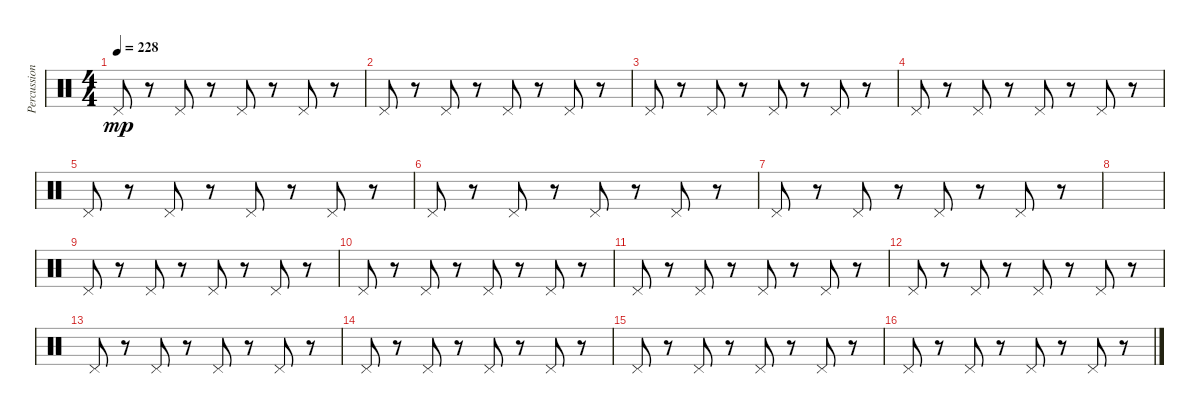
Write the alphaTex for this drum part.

\track ("Percussions" "Percussion") {instrument percussion}
\staff {score}
\articulation defaults
\ts (4 4)
\tempo 228
\clef neutral
\ks c "Pedal Hi-Hat (hit)".8{dy mp}
r.8 "Pedal Hi-Hat (hit)".8 r.8 "Pedal Hi-Hat (hit)".8 r.8 "Pedal Hi-Hat (hit)".8 r.8 |
"Pedal Hi-Hat (hit)".8 r.8 "Pedal Hi-Hat (hit)".8 r.8 "Pedal Hi-Hat (hit)".8 r.8 "Pedal Hi-Hat (hit)".8 r.8 |
"Pedal Hi-Hat (hit)".8 r.8 "Pedal Hi-Hat (hit)".8 r.8 "Pedal Hi-Hat (hit)".8 r.8 "Pedal Hi-Hat (hit)".8 r.8 |
"Pedal Hi-Hat (hit)".8 r.8 "Pedal Hi-Hat (hit)".8 r.8 "Pedal Hi-Hat (hit)".8 r.8 "Pedal Hi-Hat (hit)".8 r.8 |
"Pedal Hi-Hat (hit)".8 r.8 "Pedal Hi-Hat (hit)".8 r.8 "Pedal Hi-Hat (hit)".8 r.8 "Pedal Hi-Hat (hit)".8 r.8 |
"Pedal Hi-Hat (hit)".8 r.8 "Pedal Hi-Hat (hit)".8 r.8 "Pedal Hi-Hat (hit)".8 r.8 "Pedal Hi-Hat (hit)".8 r.8 |
"Pedal Hi-Hat (hit)".8 r.8 "Pedal Hi-Hat (hit)".8 r.8 "Pedal Hi-Hat (hit)".8 r.8 "Pedal Hi-Hat (hit)".8 r.8 |
|
"Pedal Hi-Hat (hit)".8 r.8 "Pedal Hi-Hat (hit)".8 r.8 "Pedal Hi-Hat (hit)".8 r.8 "Pedal Hi-Hat (hit)".8 r.8 |
"Pedal Hi-Hat (hit)".8 r.8 "Pedal Hi-Hat (hit)".8 r.8 "Pedal Hi-Hat (hit)".8 r.8 "Pedal Hi-Hat (hit)".8 r.8 |
"Pedal Hi-Hat (hit)".8 r.8 "Pedal Hi-Hat (hit)".8 r.8 "Pedal Hi-Hat (hit)".8 r.8 "Pedal Hi-Hat (hit)".8 r.8 |
"Pedal Hi-Hat (hit)".8 r.8 "Pedal Hi-Hat (hit)".8 r.8 "Pedal Hi-Hat (hit)".8 r.8 "Pedal Hi-Hat (hit)".8 r.8 |
"Pedal Hi-Hat (hit)".8 r.8 "Pedal Hi-Hat (hit)".8 r.8 "Pedal Hi-Hat (hit)".8 r.8 "Pedal Hi-Hat (hit)".8 r.8 |
"Pedal Hi-Hat (hit)".8 r.8 "Pedal Hi-Hat (hit)".8 r.8 "Pedal Hi-Hat (hit)".8 r.8 "Pedal Hi-Hat (hit)".8 r.8 |
"Pedal Hi-Hat (hit)".8 r.8 "Pedal Hi-Hat (hit)".8 r.8 "Pedal Hi-Hat (hit)".8 r.8 "Pedal Hi-Hat (hit)".8 r.8 |
"Pedal Hi-Hat (hit)".8 r.8 "Pedal Hi-Hat (hit)".8 r.8 "Pedal Hi-Hat (hit)".8 r.8 "Pedal Hi-Hat (hit)".8 r.8
